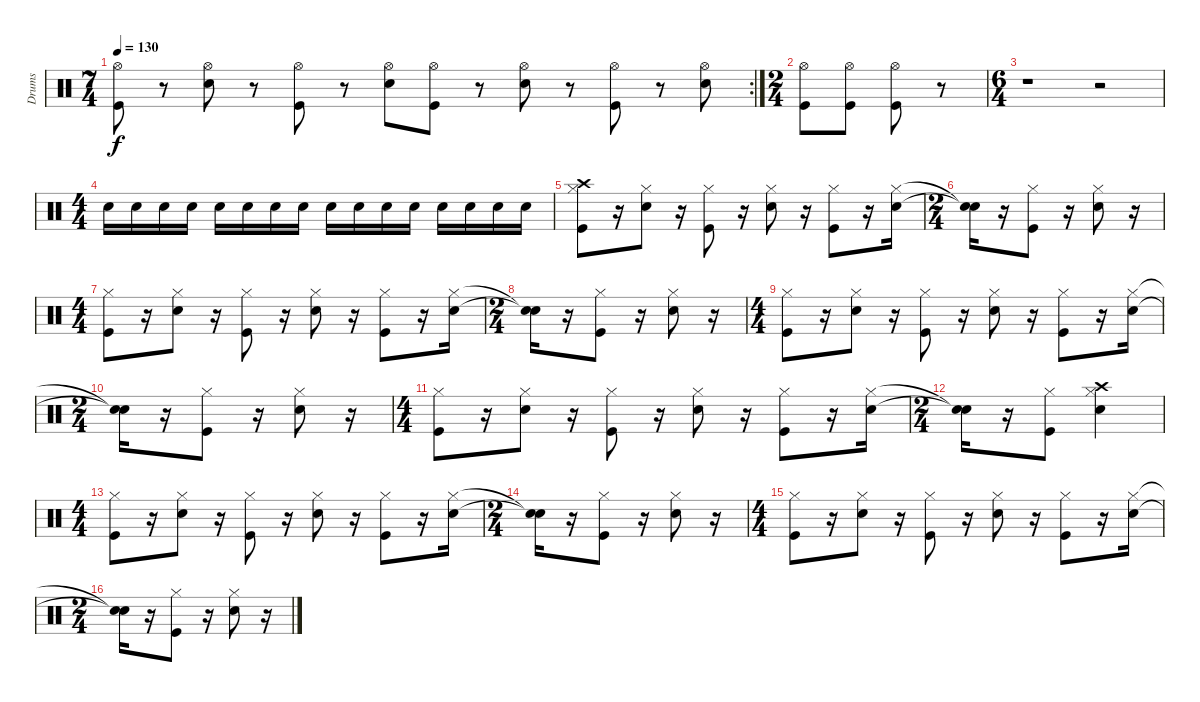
\track ("Drums" "Drums") {instrument percussion}
\staff {score}
\articulation defaults
\rc 2
\ts (7 4)
\tempo 130
\clef neutral
\ks c
("Hi-Hat (open)" "Kick (hit)").8{dy f} r.8 ("Hi-Hat (open)" "Snare (hit) 2").8 r.8 ("Hi-Hat (open)" "Kick (hit)").8 r.8 ("Hi-Hat (open)" "Snare (hit) 2").8 ("Hi-Hat (open)" "Kick (hit)").8 r.8 ("Hi-Hat (open)" "Snare (hit) 2").8 r.8 ("Hi-Hat (open)" "Kick (hit)").8 r.8 ("Hi-Hat (open)" "Snare (hit) 2").8 |
\ts (2 4)
("Hi-Hat (open)" "Kick (hit)").8 ("Hi-Hat (open)" "Kick (hit)").8 ("Hi-Hat (open)" "Kick (hit)").8 r.8 |
\ts (6 4)
r.1 r.2 |
\ts (4 4)
"Snare (hit) 2".16 "Snare (hit) 2".16 "Snare (hit) 2".16 "Snare (hit) 2".16 "Snare (hit) 2".16 "Snare (hit) 2".16 "Snare (hit) 2".16 "Snare (hit) 2".16 "Snare (hit) 2".16 "Snare (hit) 2".16 "Snare (hit) 2".16 "Snare (hit) 2".16 "Snare (hit) 2".16 "Snare (hit) 2".16 "Snare (hit) 2".16 "Snare (hit) 2".16 |
("Hi-Hat (closed)" "Kick (hit)" "Crash high (hit)").8 r.16 ("Hi-Hat (closed)" "Snare (hit) 2").8 r.16 ("Hi-Hat (closed)" "Kick (hit)").8 r.16 ("Hi-Hat (closed)" "Snare (hit) 2").8 r.16 ("Hi-Hat (closed)" "Kick (hit)").8 r.16 ("Hi-Hat (closed)" "Snare (hit) 2").16 |
\ts (2 4)
("Snare (hit)"{t} "Snare (hit)"{t}).16 r.16 ("Hi-Hat (closed)" "Kick (hit)").8 r.16 ("Hi-Hat (closed)" "Snare (hit) 2").8 r.16 |
\ts (4 4)
("Hi-Hat (closed)" "Kick (hit)").8 r.16 ("Hi-Hat (closed)" "Snare (hit) 2").8 r.16 ("Hi-Hat (closed)" "Kick (hit)").8 r.16 ("Hi-Hat (closed)" "Snare (hit) 2").8 r.16 ("Hi-Hat (closed)" "Kick (hit)").8 r.16 ("Hi-Hat (closed)" "Snare (hit) 2").16 |
\ts (2 4)
("Snare (hit)"{t} "Snare (hit)"{t}).16 r.16 ("Hi-Hat (closed)" "Kick (hit)").8 r.16 ("Hi-Hat (closed)" "Snare (hit) 2").8 r.16 |
\ts (4 4)
("Hi-Hat (closed)" "Kick (hit)").8 r.16 ("Hi-Hat (closed)" "Snare (hit) 2").8 r.16 ("Hi-Hat (closed)" "Kick (hit)").8 r.16 ("Hi-Hat (closed)" "Snare (hit) 2").8 r.16 ("Hi-Hat (closed)" "Kick (hit)").8 r.16 ("Hi-Hat (closed)" "Snare (hit) 2").16 |
\ts (2 4)
("Snare (hit)"{t} "Snare (hit)"{t}).16 r.16 ("Hi-Hat (closed)" "Kick (hit)").8 r.16 ("Hi-Hat (closed)" "Snare (hit) 2").8 r.16 |
\ts (4 4)
("Hi-Hat (closed)" "Kick (hit)").8 r.16 ("Hi-Hat (closed)" "Snare (hit) 2").8 r.16 ("Hi-Hat (closed)" "Kick (hit)").8 r.16 ("Hi-Hat (closed)" "Snare (hit) 2").8 r.16 ("Hi-Hat (closed)" "Kick (hit)").8 r.16 ("Hi-Hat (closed)" "Snare (hit) 2").16 |
\ts (2 4)
("Snare (hit)"{t} "Snare (hit)"{t}).16 r.16 ("Hi-Hat (closed)" "Kick (hit)").8 ("Hi-Hat (closed)" "Snare (hit) 2" "Crash high (hit)").4 |
\ts (4 4)
("Hi-Hat (closed)" "Kick (hit)").8 r.16 ("Hi-Hat (closed)" "Snare (hit) 2").8 r.16 ("Hi-Hat (closed)" "Kick (hit)").8 r.16 ("Hi-Hat (closed)" "Snare (hit) 2").8 r.16 ("Hi-Hat (closed)" "Kick (hit)").8 r.16 ("Hi-Hat (closed)" "Snare (hit) 2").16 |
\ts (2 4)
("Snare (hit)"{t} "Snare (hit)"{t}).16 r.16 ("Hi-Hat (closed)" "Kick (hit)").8 r.16 ("Hi-Hat (closed)" "Snare (hit) 2").8 r.16 |
\ts (4 4)
("Hi-Hat (closed)" "Kick (hit)").8 r.16 ("Hi-Hat (closed)" "Snare (hit) 2").8 r.16 ("Hi-Hat (closed)" "Kick (hit)").8 r.16 ("Hi-Hat (closed)" "Snare (hit) 2").8 r.16 ("Hi-Hat (closed)" "Kick (hit)").8 r.16 ("Hi-Hat (closed)" "Snare (hit) 2").16 |
\ts (2 4)
("Snare (hit)"{t} "Snare (hit)"{t}).16 r.16 ("Hi-Hat (closed)" "Kick (hit)").8 r.16 ("Hi-Hat (closed)" "Snare (hit) 2").8 r.16
